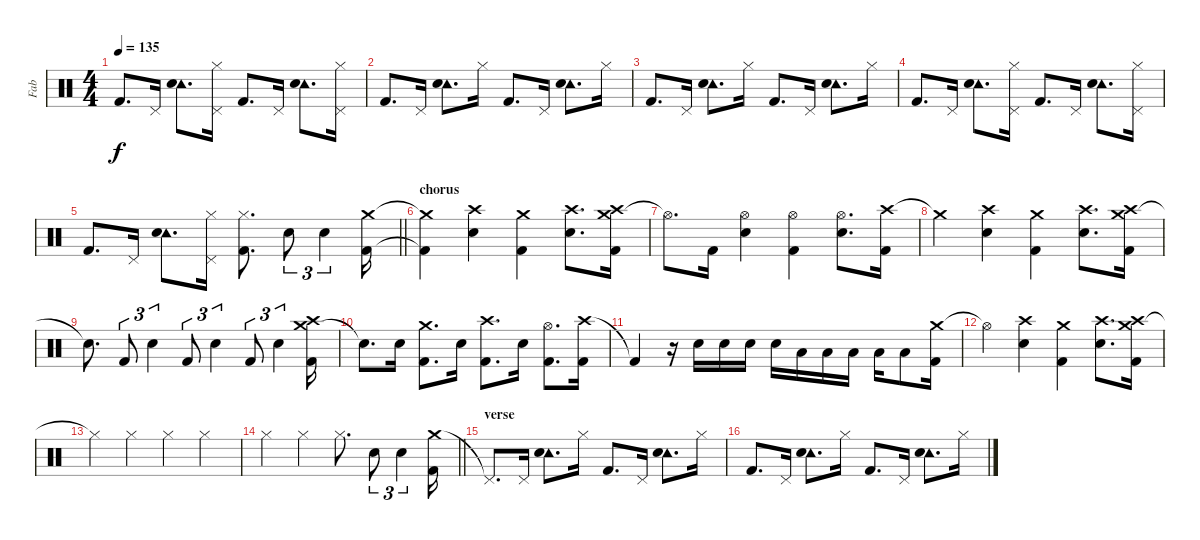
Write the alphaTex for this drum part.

\track ("Fab" "Fab") {instrument percussion}
\staff {score}
\articulation defaults
\ts (4 4)
\tempo 135
\clef neutral
\ks c "Kick (hit) 2".8{d dy f} "Pedal Hi-Hat (hit)".16
("Tambourine (hit)" "Snare (hit) 2").8{d} ("Hi-Hat (closed)" "Pedal Hi-Hat (hit)").16 "Kick (hit) 2".8{d} "Pedal Hi-Hat (hit)".16 ("Tambourine (hit)" "Snare (hit) 2").8{d} ("Hi-Hat (closed)" "Pedal Hi-Hat (hit)").16 |
"Kick (hit) 2".8{d} "Pedal Hi-Hat (hit)".16 ("Tambourine (hit)" "Snare (hit) 2").8{d} "Hi-Hat (closed)".16 "Kick (hit) 2".8{d} "Pedal Hi-Hat (hit)".16 ("Tambourine (hit)" "Snare (hit) 2").8{d} "Hi-Hat (closed)".16 |
"Kick (hit) 2".8{d} "Pedal Hi-Hat (hit)".16 ("Tambourine (hit)" "Snare (hit) 2").8{d} "Hi-Hat (closed)".16 "Kick (hit) 2".8{d} "Pedal Hi-Hat (hit)".16 ("Tambourine (hit)" "Snare (hit) 2").8{d} "Hi-Hat (closed)".16 |
"Kick (hit) 2".8{d} "Pedal Hi-Hat (hit)".16 ("Tambourine (hit)" "Snare (hit) 2").8{d} ("Hi-Hat (closed)" "Pedal Hi-Hat (hit)").16 "Kick (hit) 2".8{d} "Pedal Hi-Hat (hit)".16 ("Tambourine (hit)" "Snare (hit) 2").8{d} ("Hi-Hat (closed)" "Pedal Hi-Hat (hit)").16 |
\barLineRight lightlight "Kick (hit) 2".8{d} "Pedal Hi-Hat (hit)".16
("Tambourine (hit)" "Snare (hit) 2").8{d} ("Hi-Hat (closed)" "Pedal Hi-Hat (hit)").16 ("Hi-Hat (closed)" "Kick (hit) 2").8{d} "Snare (hit) 2".8{tu (3 2)} "Snare (hit) 2".4{tu (3 2)} ("Crash medium (hit)" "Kick (hit) 2").16 |
\section ("" "chorus")
("Crash medium (hit)"{t} "Kick (hit) 2"{t}).4 ("Crash high (hit)" "Snare (hit) 2").4 ("Crash medium (hit)" "Kick (hit) 2").4 ("Crash high (hit)" "Snare (hit) 2").8{d} ("Crash medium (hit)" "Crash high (hit)" "Kick (hit) 2").16 |
"Hi-Hat (open)"{t}.8{d} "Kick (hit) 2".16 ("Hi-Hat (open)" "Snare (hit) 2").4 ("Hi-Hat (open)" "Kick (hit) 2").4 ("Hi-Hat (open)" "Snare (hit) 2").8{d} ("Crash high (hit)" "Kick (hit) 2").16 |
"Crash medium (hit)"{t}.4 ("Crash high (hit)" "Snare (hit) 2").4 ("Crash medium (hit)" "Kick (hit) 2").4 ("Crash high (hit)" "Snare (hit) 2").8{d} ("Crash medium (hit)" "Crash high (hit)" "Kick (hit) 2").16 |
"Snare (hit)"{t}.8{d} "Kick (hit) 2".8{tu (3 2)} "Snare (hit) 2".4{tu (3 2)} "Kick (hit) 2".8{tu (3 2)} "Snare (hit) 2".4{tu (3 2)} "Kick (hit) 2".8{tu (3 2)} "Snare (hit) 2".4{tu (3 2)} ("Crash medium (hit)" "Crash high (hit)" "Kick (hit) 2").16 |
"Snare (hit) 2"{t}.8{d} "Snare (hit) 2".16 ("Crash medium (hit)" "Kick (hit) 2").8{d} "Snare (hit) 2".16 ("Crash high (hit)" "Kick (hit) 2").8{d} "Snare (hit) 2".16 ("Hi-Hat (open)" "Kick (hit) 2").8{d} ("Crash high (hit)" "Kick (hit) 2").16 |
"Kick (hit) 2"{t}.4 r.16 "Snare (hit) 2".16 "Snare (hit) 2".16 "Snare (hit) 2".16 "Snare (hit) 2".16 "Low Tom (hit)".16 "Low Tom (hit)".16 "Low Tom (hit)".16 "Low Floor Tom (hit)".16 "Low Floor Tom (hit)".8 ("Crash medium (hit)" "Kick (hit) 2").16 |
"Hi-Hat (open)"{t}.4 ("Crash high (hit)" "Snare (hit) 2").4 ("Crash medium (hit)" "Kick (hit) 2").4 ("Crash high (hit)" "Snare (hit) 2").8{d} ("Crash medium (hit)" "Crash high (hit)" "Kick (hit) 2").16 |
"Hi-Hat (closed)"{t}.4 "Hi-Hat (closed)".4 "Hi-Hat (closed)".4 "Hi-Hat (closed)".4 |
\barLineRight lightlight "Hi-Hat (closed)".4 "Hi-Hat (closed)".4 "Hi-Hat (closed)".8{d} "Snare (hit) 2".8{tu (3 2)} "Snare (hit) 2".4{tu (3 2)}
("Crash medium (hit)" "Kick (hit) 2").16 |
\section ("" "verse")
"Pedal Hi-Hat (hit)"{t}.8{d} "Pedal Hi-Hat (hit)".16 ("Tambourine (hit)" "Snare (hit) 2").8{d} "Hi-Hat (closed)".16 "Kick (hit) 2".8{d} "Pedal Hi-Hat (hit)".16 ("Tambourine (hit)" "Snare (hit) 2").8{d} "Hi-Hat (closed)".16 |
"Kick (hit) 2".8{d} "Pedal Hi-Hat (hit)".16 ("Tambourine (hit)" "Snare (hit) 2").8{d} "Hi-Hat (closed)".16 "Kick (hit) 2".8{d} "Pedal Hi-Hat (hit)".16 ("Tambourine (hit)" "Snare (hit) 2").8{d} "Hi-Hat (closed)".16
